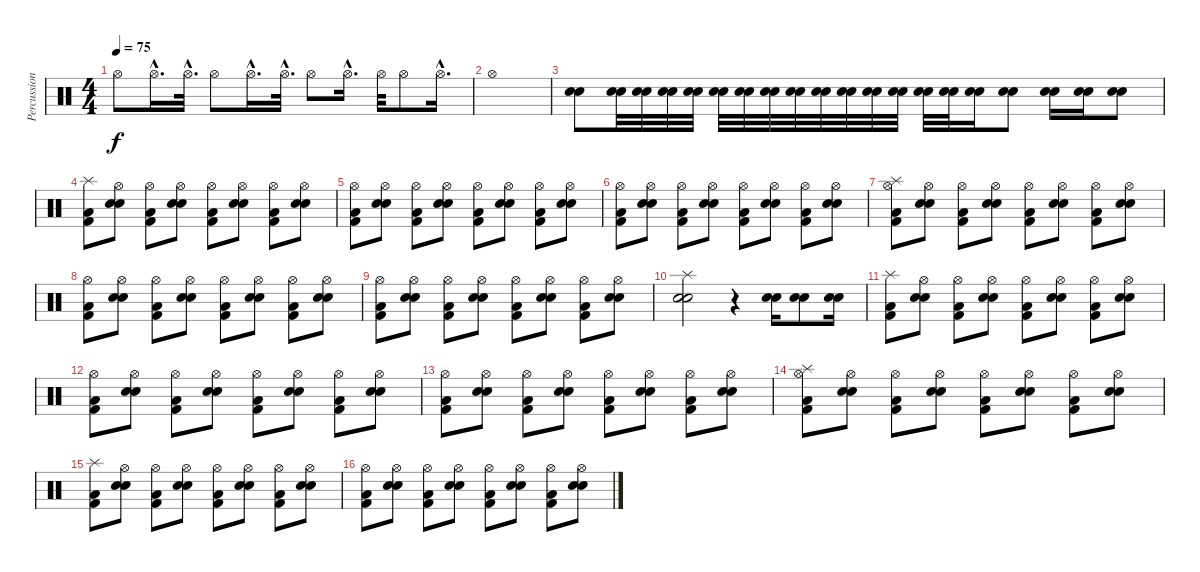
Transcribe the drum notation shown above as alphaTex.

\track ("Percussions" "Percussion") {instrument percussion}
\staff {score}
\articulation defaults
\ts (4 4)
\tempo 75
\clef neutral
\ks c "Hi-Hat (open)".8{dy f} "Hi-Hat (open)"{hac}.16{d} "Hi-Hat (open)"{hac}.32{d} "Hi-Hat (open)".8 "Hi-Hat (open)"{hac}.16{d} "Hi-Hat (open)"{hac}.32{d} "Hi-Hat (open)".8 "Hi-Hat (open)"{hac}.16{d} "Hi-Hat (open)".32 "Hi-Hat (open)".8 "Hi-Hat (open)"{hac}.16{d}
|
"Hi-Hat (open)".1 |
("Electric Snare (hit)" "Snare (hit) 2").8 ("Electric Snare (hit)" "Snare (hit) 2").32 ("Electric Snare (hit)" "Snare (hit) 2").32 ("Electric Snare (hit)" "Snare (hit) 2").32 ("Electric Snare (hit)" "Snare (hit) 2").32 ("Electric Snare (hit)" "Snare (hit) 2").32 ("Electric Snare (hit)" "Snare (hit) 2").32 ("Electric Snare (hit)" "Snare (hit) 2").32 ("Electric Snare (hit)" "Snare (hit) 2").32 ("Electric Snare (hit)" "Snare (hit) 2").32 ("Electric Snare (hit)" "Snare (hit) 2").32 ("Electric Snare (hit)" "Snare (hit) 2").32 ("Electric Snare (hit)" "Snare (hit) 2").32 ("Electric Snare (hit)" "Snare (hit) 2").32 ("Electric Snare (hit)" "Snare (hit) 2").32 ("Electric Snare (hit)" "Snare (hit) 2").16 ("Electric Snare (hit)" "Snare (hit) 2").8 ("Electric Snare (hit)" "Snare (hit) 2").16 ("Electric Snare (hit)" "Snare (hit) 2").16 ("Electric Snare (hit)" "Snare (hit) 2").8 |
("Splash (hit)" "Low Floor Tom (hit)" "Kick (hit) 2").8 ("Electric Snare (hit)" "Snare (hit) 2" "Hi-Hat (open)").8 ("Low Floor Tom (hit)" "Kick (hit) 2" "Hi-Hat (open)").8 ("Electric Snare (hit)" "Snare (hit) 2" "Hi-Hat (open)").8 ("Low Floor Tom (hit)" "Kick (hit) 2" "Hi-Hat (open)").8 ("Electric Snare (hit)" "Snare (hit) 2" "Hi-Hat (open)").8 ("Low Floor Tom (hit)" "Kick (hit) 2" "Hi-Hat (open)").8 ("Electric Snare (hit)" "Snare (hit) 2" "Hi-Hat (open)").8 |
("Low Floor Tom (hit)" "Kick (hit) 2" "Hi-Hat (open)").8 ("Electric Snare (hit)" "Snare (hit) 2" "Hi-Hat (open)").8 ("Low Floor Tom (hit)" "Kick (hit) 2" "Hi-Hat (open)").8 ("Electric Snare (hit)" "Snare (hit) 2" "Hi-Hat (open)").8 ("Low Floor Tom (hit)" "Kick (hit) 2" "Hi-Hat (open)").8 ("Electric Snare (hit)" "Snare (hit) 2" "Hi-Hat (open)").8 ("Low Floor Tom (hit)" "Kick (hit) 2" "Hi-Hat (open)").8 ("Electric Snare (hit)" "Snare (hit) 2" "Hi-Hat (open)").8 |
("Low Floor Tom (hit)" "Kick (hit) 2" "Hi-Hat (open)").8 ("Electric Snare (hit)" "Snare (hit) 2" "Hi-Hat (open)").8 ("Low Floor Tom (hit)" "Kick (hit) 2" "Hi-Hat (open)").8 ("Electric Snare (hit)" "Snare (hit) 2" "Hi-Hat (open)").8 ("Low Floor Tom (hit)" "Kick (hit) 2" "Hi-Hat (open)").8 ("Electric Snare (hit)" "Snare (hit) 2" "Hi-Hat (open)").8 ("Low Floor Tom (hit)" "Kick (hit) 2" "Hi-Hat (open)").8 ("Electric Snare (hit)" "Snare (hit) 2" "Hi-Hat (open)").8 |
("Splash (hit)" "Low Floor Tom (hit)" "Kick (hit) 2" "Hi-Hat (open)").8 ("Electric Snare (hit)" "Snare (hit) 2" "Hi-Hat (open)").8 ("Low Floor Tom (hit)" "Kick (hit) 2" "Hi-Hat (open)").8 ("Electric Snare (hit)" "Snare (hit) 2" "Hi-Hat (open)").8 ("Low Floor Tom (hit)" "Kick (hit) 2" "Hi-Hat (open)").8 ("Electric Snare (hit)" "Snare (hit) 2" "Hi-Hat (open)").8 ("Low Floor Tom (hit)" "Kick (hit) 2" "Hi-Hat (open)").8 ("Electric Snare (hit)" "Snare (hit) 2" "Hi-Hat (open)").8 |
("Low Floor Tom (hit)" "Kick (hit) 2" "Hi-Hat (open)").8 ("Electric Snare (hit)" "Snare (hit) 2" "Hi-Hat (open)").8 ("Low Floor Tom (hit)" "Kick (hit) 2" "Hi-Hat (open)").8 ("Electric Snare (hit)" "Snare (hit) 2" "Hi-Hat (open)").8 ("Low Floor Tom (hit)" "Kick (hit) 2" "Hi-Hat (open)").8 ("Electric Snare (hit)" "Snare (hit) 2" "Hi-Hat (open)").8 ("Low Floor Tom (hit)" "Kick (hit) 2" "Hi-Hat (open)").8 ("Electric Snare (hit)" "Snare (hit) 2" "Hi-Hat (open)").8 |
("Low Floor Tom (hit)" "Kick (hit) 2" "Hi-Hat (open)").8 ("Electric Snare (hit)" "Snare (hit) 2" "Hi-Hat (open)").8 ("Low Floor Tom (hit)" "Kick (hit) 2" "Hi-Hat (open)").8 ("Electric Snare (hit)" "Snare (hit) 2" "Hi-Hat (open)").8 ("Low Floor Tom (hit)" "Kick (hit) 2" "Hi-Hat (open)").8 ("Electric Snare (hit)" "Snare (hit) 2" "Hi-Hat (open)").8 ("Low Floor Tom (hit)" "Kick (hit) 2" "Hi-Hat (open)").8 ("Electric Snare (hit)" "Snare (hit) 2" "Hi-Hat (open)").8 |
("Splash (hit)" "Electric Snare (hit)" "Snare (hit) 2").2 r.4 ("Electric Snare (hit)" "Snare (hit) 2").16 ("Electric Snare (hit)" "Snare (hit) 2").8 ("Electric Snare (hit)" "Snare (hit) 2").16 |
("Splash (hit)" "Low Floor Tom (hit)" "Kick (hit) 2").8 ("Electric Snare (hit)" "Snare (hit) 2" "Hi-Hat (open)").8 ("Low Floor Tom (hit)" "Kick (hit) 2" "Hi-Hat (open)").8 ("Electric Snare (hit)" "Snare (hit) 2" "Hi-Hat (open)").8 ("Low Floor Tom (hit)" "Kick (hit) 2" "Hi-Hat (open)").8 ("Electric Snare (hit)" "Snare (hit) 2" "Hi-Hat (open)").8 ("Low Floor Tom (hit)" "Kick (hit) 2" "Hi-Hat (open)").8 ("Electric Snare (hit)" "Snare (hit) 2" "Hi-Hat (open)").8 |
("Low Floor Tom (hit)" "Kick (hit) 2" "Hi-Hat (open)").8 ("Electric Snare (hit)" "Snare (hit) 2" "Hi-Hat (open)").8 ("Low Floor Tom (hit)" "Kick (hit) 2" "Hi-Hat (open)").8 ("Electric Snare (hit)" "Snare (hit) 2" "Hi-Hat (open)").8 ("Low Floor Tom (hit)" "Kick (hit) 2" "Hi-Hat (open)").8 ("Electric Snare (hit)" "Snare (hit) 2" "Hi-Hat (open)").8 ("Low Floor Tom (hit)" "Kick (hit) 2" "Hi-Hat (open)").8 ("Electric Snare (hit)" "Snare (hit) 2" "Hi-Hat (open)").8 |
("Low Floor Tom (hit)" "Kick (hit) 2" "Hi-Hat (open)").8 ("Electric Snare (hit)" "Snare (hit) 2" "Hi-Hat (open)").8 ("Low Floor Tom (hit)" "Kick (hit) 2" "Hi-Hat (open)").8 ("Electric Snare (hit)" "Snare (hit) 2" "Hi-Hat (open)").8 ("Low Floor Tom (hit)" "Kick (hit) 2" "Hi-Hat (open)").8 ("Electric Snare (hit)" "Snare (hit) 2" "Hi-Hat (open)").8 ("Low Floor Tom (hit)" "Kick (hit) 2" "Hi-Hat (open)").8 ("Electric Snare (hit)" "Snare (hit) 2" "Hi-Hat (open)").8 |
("Splash (hit)" "Low Floor Tom (hit)" "Kick (hit) 2" "Hi-Hat (open)").8 ("Electric Snare (hit)" "Snare (hit) 2" "Hi-Hat (open)").8 ("Low Floor Tom (hit)" "Kick (hit) 2" "Hi-Hat (open)").8 ("Electric Snare (hit)" "Snare (hit) 2" "Hi-Hat (open)").8 ("Low Floor Tom (hit)" "Kick (hit) 2" "Hi-Hat (open)").8 ("Electric Snare (hit)" "Snare (hit) 2" "Hi-Hat (open)").8 ("Low Floor Tom (hit)" "Kick (hit) 2" "Hi-Hat (open)").8 ("Electric Snare (hit)" "Snare (hit) 2" "Hi-Hat (open)").8 |
("Splash (hit)" "Low Floor Tom (hit)" "Kick (hit) 2").8 ("Electric Snare (hit)" "Snare (hit) 2" "Hi-Hat (open)").8 ("Low Floor Tom (hit)" "Kick (hit) 2" "Hi-Hat (open)").8 ("Electric Snare (hit)" "Snare (hit) 2" "Hi-Hat (open)").8 ("Low Floor Tom (hit)" "Kick (hit) 2" "Hi-Hat (open)").8 ("Electric Snare (hit)" "Snare (hit) 2" "Hi-Hat (open)").8 ("Low Floor Tom (hit)" "Kick (hit) 2" "Hi-Hat (open)").8 ("Electric Snare (hit)" "Snare (hit) 2" "Hi-Hat (open)").8 |
("Low Floor Tom (hit)" "Kick (hit) 2" "Hi-Hat (open)").8 ("Electric Snare (hit)" "Snare (hit) 2" "Hi-Hat (open)").8 ("Low Floor Tom (hit)" "Kick (hit) 2" "Hi-Hat (open)").8 ("Electric Snare (hit)" "Snare (hit) 2" "Hi-Hat (open)").8 ("Low Floor Tom (hit)" "Kick (hit) 2" "Hi-Hat (open)").8 ("Electric Snare (hit)" "Snare (hit) 2" "Hi-Hat (open)").8 ("Low Floor Tom (hit)" "Kick (hit) 2" "Hi-Hat (open)").8 ("Electric Snare (hit)" "Snare (hit) 2" "Hi-Hat (open)").8
